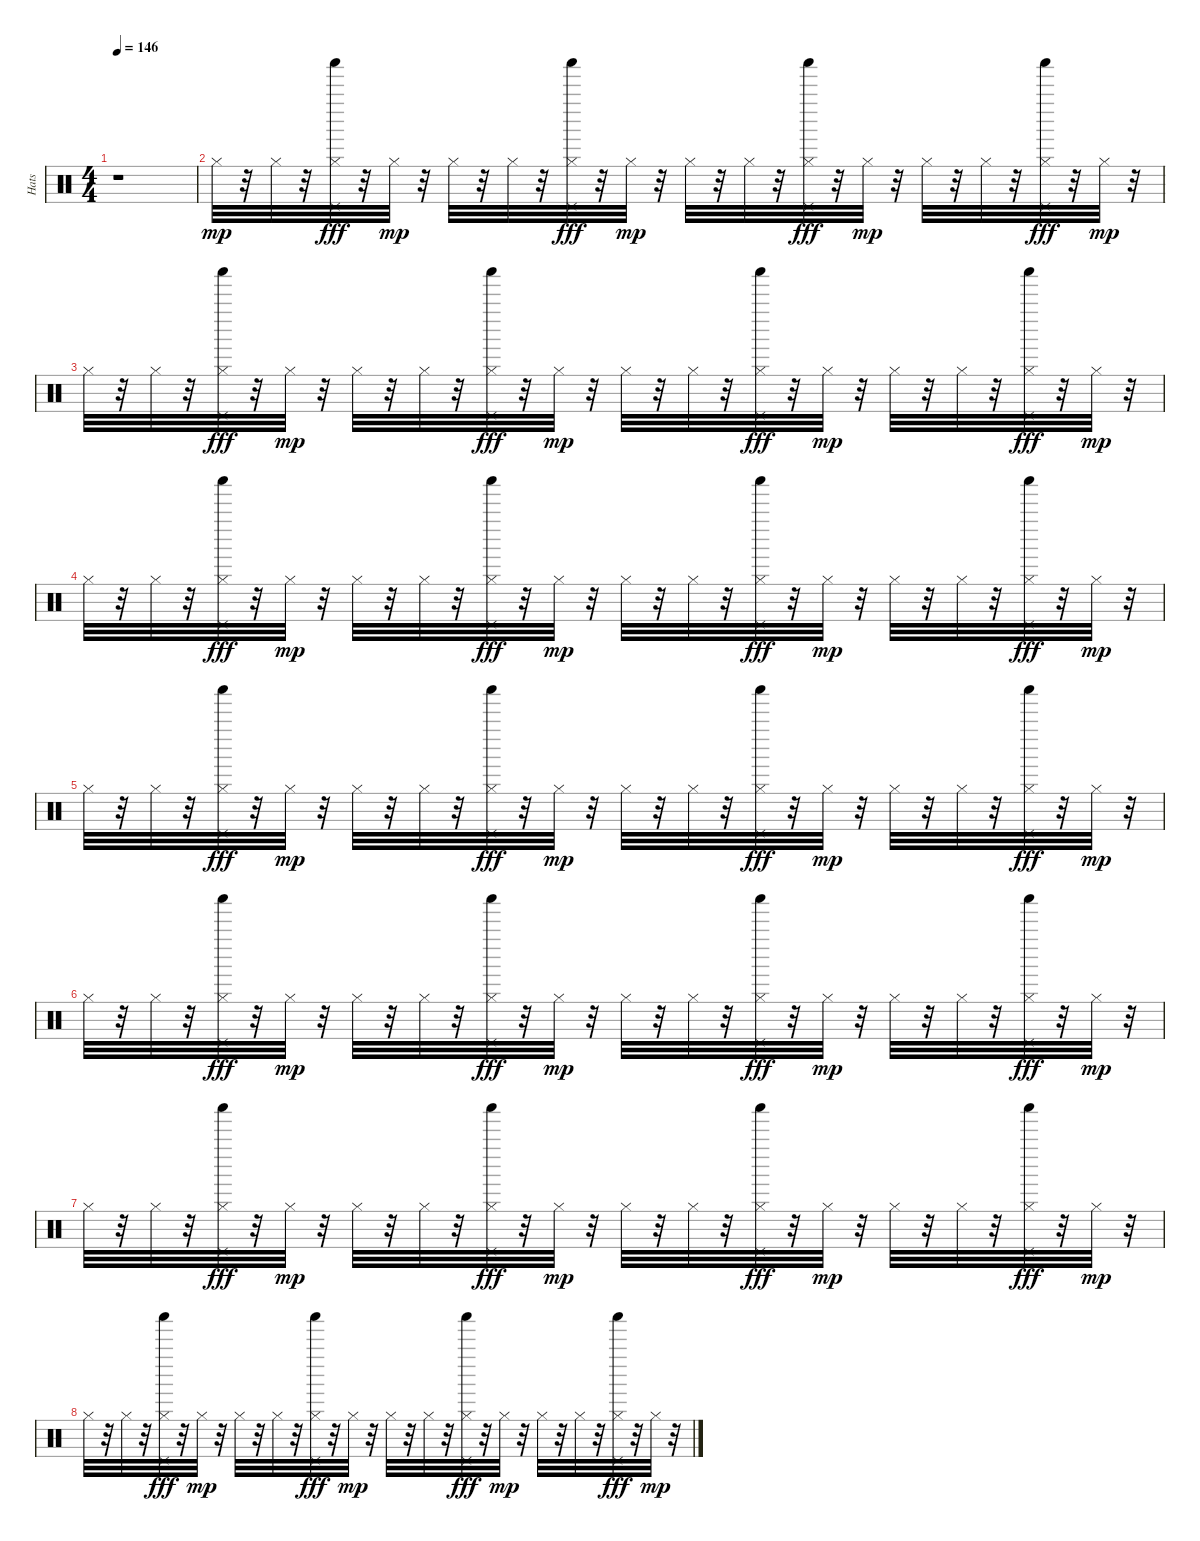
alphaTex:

\track ("Hats" "Hats") {instrument percussion}
\staff {score}
\articulation defaults
\ts (4 4)
\tempo 146
\clef neutral
\ks c
r.1{dy mp} |
"Hi-Hat (closed)".32 r.32 "Hi-Hat (closed)".32 r.32 ("Hi-Hat (closed)" "Pedal Hi-Hat (hit)" "Shaker (hit)").32{dy fff} r.32 "Hi-Hat (closed)".32{dy mp} r.32 "Hi-Hat (closed)".32 r.32 "Hi-Hat (closed)".32 r.32 ("Hi-Hat (closed)" "Pedal Hi-Hat (hit)" "Shaker (hit)").32{dy fff} r.32 "Hi-Hat (closed)".32{dy mp} r.32 "Hi-Hat (closed)".32 r.32 "Hi-Hat (closed)".32 r.32 ("Hi-Hat (closed)" "Pedal Hi-Hat (hit)" "Shaker (hit)").32{dy fff} r.32 "Hi-Hat (closed)".32{dy mp} r.32 "Hi-Hat (closed)".32 r.32 "Hi-Hat (closed)".32 r.32 ("Hi-Hat (closed)" "Pedal Hi-Hat (hit)" "Shaker (hit)").32{dy fff} r.32 "Hi-Hat (closed)".32{dy mp} r.32 |
"Hi-Hat (closed)".32 r.32 "Hi-Hat (closed)".32 r.32 ("Hi-Hat (closed)" "Pedal Hi-Hat (hit)" "Shaker (hit)").32{dy fff} r.32 "Hi-Hat (closed)".32{dy mp} r.32 "Hi-Hat (closed)".32 r.32 "Hi-Hat (closed)".32 r.32 ("Hi-Hat (closed)" "Pedal Hi-Hat (hit)" "Shaker (hit)").32{dy fff} r.32 "Hi-Hat (closed)".32{dy mp} r.32 "Hi-Hat (closed)".32 r.32 "Hi-Hat (closed)".32 r.32 ("Hi-Hat (closed)" "Pedal Hi-Hat (hit)" "Shaker (hit)").32{dy fff} r.32 "Hi-Hat (closed)".32{dy mp} r.32 "Hi-Hat (closed)".32 r.32 "Hi-Hat (closed)".32 r.32 ("Hi-Hat (closed)" "Pedal Hi-Hat (hit)" "Shaker (hit)").32{dy fff} r.32 "Hi-Hat (closed)".32{dy mp} r.32 |
"Hi-Hat (closed)".32 r.32 "Hi-Hat (closed)".32 r.32 ("Hi-Hat (closed)" "Pedal Hi-Hat (hit)" "Shaker (hit)").32{dy fff} r.32 "Hi-Hat (closed)".32{dy mp} r.32 "Hi-Hat (closed)".32 r.32 "Hi-Hat (closed)".32 r.32 ("Hi-Hat (closed)" "Pedal Hi-Hat (hit)" "Shaker (hit)").32{dy fff} r.32 "Hi-Hat (closed)".32{dy mp} r.32 "Hi-Hat (closed)".32 r.32 "Hi-Hat (closed)".32 r.32 ("Hi-Hat (closed)" "Pedal Hi-Hat (hit)" "Shaker (hit)").32{dy fff} r.32 "Hi-Hat (closed)".32{dy mp} r.32 "Hi-Hat (closed)".32 r.32 "Hi-Hat (closed)".32 r.32 ("Hi-Hat (closed)" "Pedal Hi-Hat (hit)" "Shaker (hit)").32{dy fff} r.32 "Hi-Hat (closed)".32{dy mp} r.32 |
"Hi-Hat (closed)".32 r.32 "Hi-Hat (closed)".32 r.32 ("Hi-Hat (closed)" "Pedal Hi-Hat (hit)" "Shaker (hit)").32{dy fff} r.32 "Hi-Hat (closed)".32{dy mp} r.32 "Hi-Hat (closed)".32 r.32 "Hi-Hat (closed)".32 r.32 ("Hi-Hat (closed)" "Pedal Hi-Hat (hit)" "Shaker (hit)").32{dy fff} r.32 "Hi-Hat (closed)".32{dy mp} r.32 "Hi-Hat (closed)".32 r.32 "Hi-Hat (closed)".32 r.32 ("Hi-Hat (closed)" "Pedal Hi-Hat (hit)" "Shaker (hit)").32{dy fff} r.32 "Hi-Hat (closed)".32{dy mp} r.32 "Hi-Hat (closed)".32 r.32 "Hi-Hat (closed)".32 r.32 ("Hi-Hat (closed)" "Pedal Hi-Hat (hit)" "Shaker (hit)").32{dy fff} r.32 "Hi-Hat (closed)".32{dy mp} r.32 |
"Hi-Hat (closed)".32 r.32 "Hi-Hat (closed)".32 r.32 ("Hi-Hat (closed)" "Pedal Hi-Hat (hit)" "Shaker (hit)").32{dy fff} r.32 "Hi-Hat (closed)".32{dy mp} r.32 "Hi-Hat (closed)".32 r.32 "Hi-Hat (closed)".32 r.32 ("Hi-Hat (closed)" "Pedal Hi-Hat (hit)" "Shaker (hit)").32{dy fff} r.32 "Hi-Hat (closed)".32{dy mp} r.32 "Hi-Hat (closed)".32 r.32 "Hi-Hat (closed)".32 r.32 ("Hi-Hat (closed)" "Pedal Hi-Hat (hit)" "Shaker (hit)").32{dy fff} r.32 "Hi-Hat (closed)".32{dy mp} r.32 "Hi-Hat (closed)".32 r.32 "Hi-Hat (closed)".32 r.32 ("Hi-Hat (closed)" "Pedal Hi-Hat (hit)" "Shaker (hit)").32{dy fff} r.32 "Hi-Hat (closed)".32{dy mp} r.32 |
"Hi-Hat (closed)".32 r.32 "Hi-Hat (closed)".32 r.32 ("Hi-Hat (closed)" "Pedal Hi-Hat (hit)" "Shaker (hit)").32{dy fff} r.32 "Hi-Hat (closed)".32{dy mp} r.32 "Hi-Hat (closed)".32 r.32 "Hi-Hat (closed)".32 r.32 ("Hi-Hat (closed)" "Pedal Hi-Hat (hit)" "Shaker (hit)").32{dy fff} r.32 "Hi-Hat (closed)".32{dy mp} r.32 "Hi-Hat (closed)".32 r.32 "Hi-Hat (closed)".32 r.32 ("Hi-Hat (closed)" "Pedal Hi-Hat (hit)" "Shaker (hit)").32{dy fff} r.32 "Hi-Hat (closed)".32{dy mp} r.32 "Hi-Hat (closed)".32 r.32 "Hi-Hat (closed)".32 r.32 ("Hi-Hat (closed)" "Pedal Hi-Hat (hit)" "Shaker (hit)").32{dy fff} r.32 "Hi-Hat (closed)".32{dy mp} r.32 |
"Hi-Hat (closed)".32 r.32 "Hi-Hat (closed)".32 r.32 ("Hi-Hat (closed)" "Pedal Hi-Hat (hit)" "Shaker (hit)").32{dy fff} r.32 "Hi-Hat (closed)".32{dy mp} r.32 "Hi-Hat (closed)".32 r.32 "Hi-Hat (closed)".32 r.32 ("Hi-Hat (closed)" "Pedal Hi-Hat (hit)" "Shaker (hit)").32{dy fff} r.32 "Hi-Hat (closed)".32{dy mp} r.32 "Hi-Hat (closed)".32 r.32 "Hi-Hat (closed)".32 r.32 ("Hi-Hat (closed)" "Pedal Hi-Hat (hit)" "Shaker (hit)").32{dy fff} r.32 "Hi-Hat (closed)".32{dy mp} r.32 "Hi-Hat (closed)".32 r.32 "Hi-Hat (closed)".32 r.32 ("Hi-Hat (closed)" "Pedal Hi-Hat (hit)" "Shaker (hit)").32{dy fff} r.32 "Hi-Hat (closed)".32{dy mp} r.32
